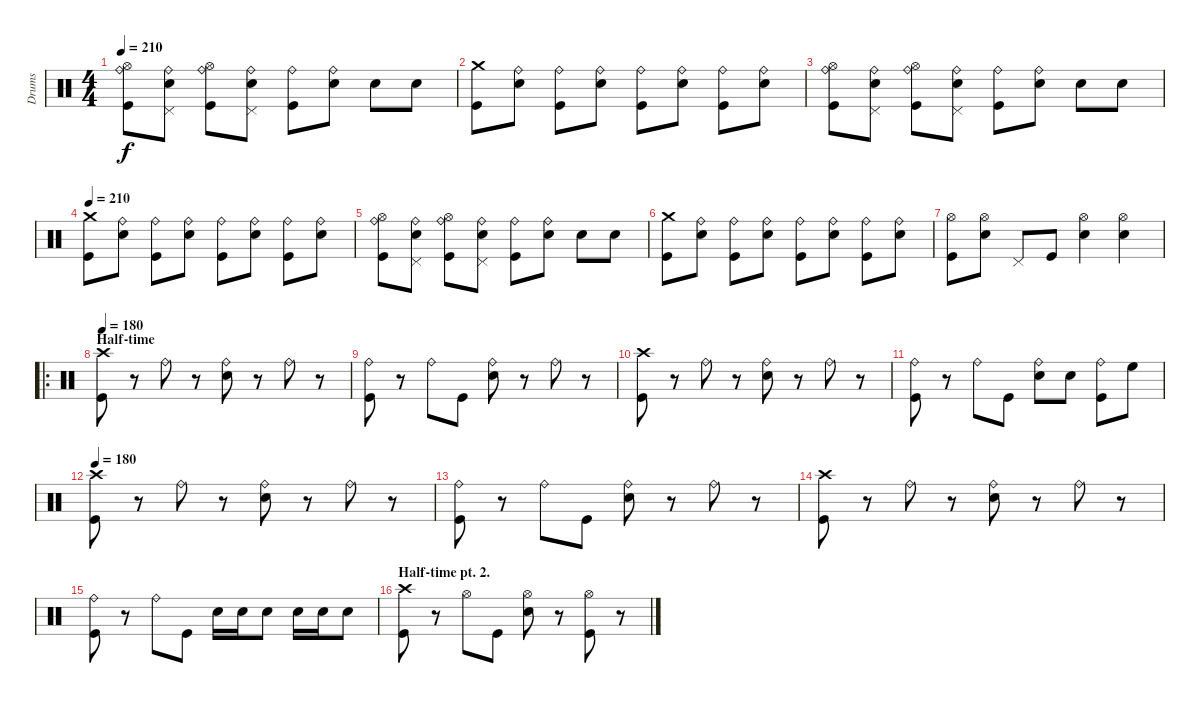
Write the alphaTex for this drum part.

\track ("Drums" "Drums") {instrument percussion}
\staff {score}
\articulation defaults
\ts (4 4)
\tempo 210
\clef neutral
\ks c
("Ride (bell)" "Hi-Hat (open)" "Kick (hit)").8{dy f} ("Ride (bell)" "Pedal Hi-Hat (hit)" "Electric Snare (hit)").8 ("Ride (bell)" "Hi-Hat (open)" "Kick (hit)").8 ("Ride (bell)" "Pedal Hi-Hat (hit)" "Electric Snare (hit)").8 ("Ride (bell)" "Kick (hit)").8 ("Ride (bell)" "Electric Snare (hit)").8 "Electric Snare (hit)".8 "Electric Snare (hit)".8 |
("Crash medium (hit)" "Kick (hit)").8 ("Ride (bell)" "Electric Snare (hit)").8 ("Ride (bell)" "Kick (hit)").8 ("Ride (bell)" "Electric Snare (hit)").8 ("Ride (bell)" "Kick (hit)").8 ("Ride (bell)" "Electric Snare (hit)").8 ("Ride (bell)" "Kick (hit)").8 ("Ride (bell)" "Electric Snare (hit)").8 |
("Ride (bell)" "Hi-Hat (open)" "Kick (hit)").8 ("Ride (bell)" "Pedal Hi-Hat (hit)" "Electric Snare (hit)").8 ("Ride (bell)" "Hi-Hat (open)" "Kick (hit)").8 ("Ride (bell)" "Pedal Hi-Hat (hit)" "Electric Snare (hit)").8 ("Ride (bell)" "Kick (hit)").8 ("Ride (bell)" "Electric Snare (hit)").8 "Electric Snare (hit)".8 "Electric Snare (hit)".8 |
\tempo 210
("Crash medium (hit)" "Kick (hit)").8 ("Ride (bell)" "Electric Snare (hit)").8 ("Ride (bell)" "Kick (hit)").8 ("Ride (bell)" "Electric Snare (hit)").8 ("Ride (bell)" "Kick (hit)").8 ("Ride (bell)" "Electric Snare (hit)").8 ("Ride (bell)" "Kick (hit)").8 ("Ride (bell)" "Electric Snare (hit)").8 |
("Ride (bell)" "Hi-Hat (open)" "Kick (hit)").8 ("Ride (bell)" "Pedal Hi-Hat (hit)" "Electric Snare (hit)").8 ("Ride (bell)" "Hi-Hat (open)" "Kick (hit)").8 ("Ride (bell)" "Pedal Hi-Hat (hit)" "Electric Snare (hit)").8 ("Ride (bell)" "Kick (hit)").8 ("Ride (bell)" "Electric Snare (hit)").8 "Electric Snare (hit)".8 "Electric Snare (hit)".8 |
("Crash medium (hit)" "Kick (hit)").8 ("Ride (bell)" "Electric Snare (hit)").8 ("Ride (bell)" "Kick (hit)").8 ("Ride (bell)" "Electric Snare (hit)").8 ("Ride (bell)" "Kick (hit)").8 ("Ride (bell)" "Electric Snare (hit)").8 ("Ride (bell)" "Kick (hit)").8 ("Ride (bell)" "Electric Snare (hit)").8 |
("Hi-Hat (open)" "Kick (hit)").8 ("Hi-Hat (open)" "Electric Snare (hit)").8 "Pedal Hi-Hat (hit)".8 "Kick (hit)".8 ("Hi-Hat (open)" "Electric Snare (hit)").4 ("Hi-Hat (open)" "Electric Snare (hit)").4 |
\ro
\section ("" "Half-time")
\tempo 180
("Crash high (hit)" "Kick (hit)").8 r.8 "Ride (bell)".8 r.8 ("Ride (bell)" "Electric Snare (hit)").8 r.8 "Ride (bell)".8 r.8 |
("Ride (bell)" "Kick (hit)").8 r.8 "Ride (bell)".8 "Kick (hit)".8 ("Ride (bell)" "Electric Snare (hit)").8 r.8 "Ride (bell)".8 r.8 |
("Crash high (hit)" "Kick (hit)").8 r.8 "Ride (bell)".8 r.8 ("Ride (bell)" "Electric Snare (hit)").8 r.8 "Ride (bell)".8 r.8 |
("Ride (bell)" "Kick (hit)").8 r.8 "Ride (bell)".8 "Kick (hit)".8 ("Ride (bell)" "Electric Snare (hit)").8 "Electric Snare (hit)".8 ("Ride (bell)" "Kick (hit)").8 "High Floor Tom (hit)".8 |
\tempo 180
("Crash high (hit)" "Kick (hit)").8 r.8 "Ride (bell)".8 r.8 ("Ride (bell)" "Electric Snare (hit)").8 r.8 "Ride (bell)".8 r.8 |
("Ride (bell)" "Kick (hit)").8 r.8 "Ride (bell)".8 "Kick (hit)".8 ("Ride (bell)" "Electric Snare (hit)").8 r.8 "Ride (bell)".8 r.8 |
("Crash high (hit)" "Kick (hit)").8 r.8 "Ride (bell)".8 r.8 ("Ride (bell)" "Electric Snare (hit)").8 r.8 "Ride (bell)".8 r.8 |
("Ride (bell)" "Kick (hit)").8 r.8 "Ride (bell)".8 "Kick (hit)".8 "Electric Snare (hit)".16 "Electric Snare (hit)".16 "Electric Snare (hit)".8 "Electric Snare (hit)".16 "Electric Snare (hit)".16 "Electric Snare (hit)".8 |
\section ("" "Half-time pt. 2.")
("Crash high (hit)" "Kick (hit)").8 r.8 "Hi-Hat (open)".8 "Kick (hit)".8 ("Hi-Hat (open)" "Electric Snare (hit)").8 r.8 ("Hi-Hat (open)" "Kick (hit)").8 r.8
